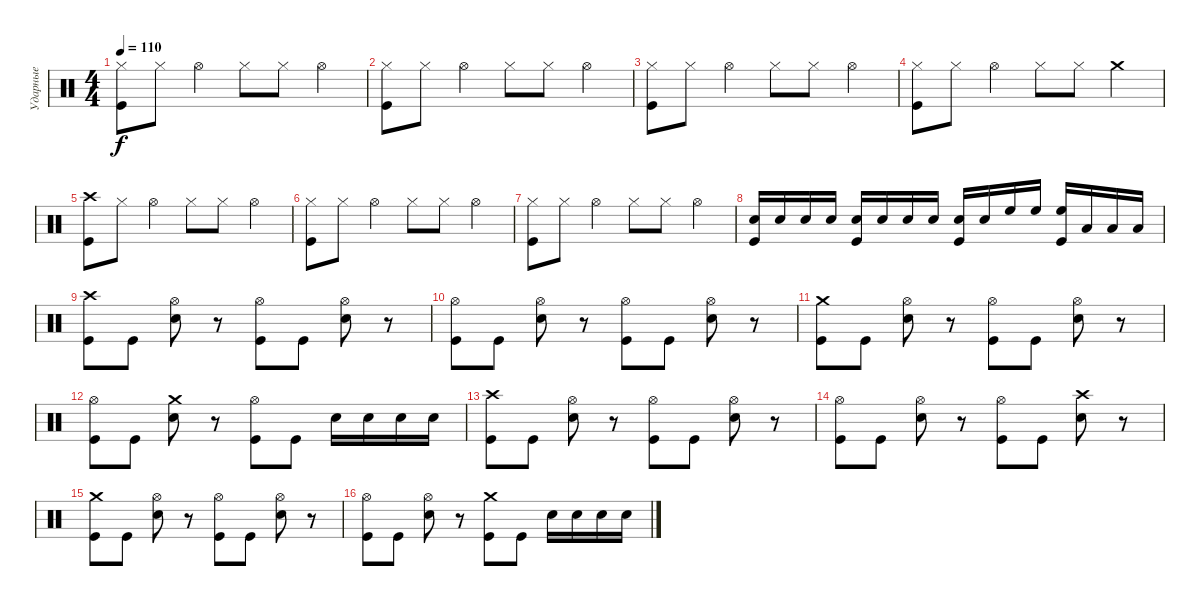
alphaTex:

\track ("Ударные" "Ударные") {solo instrument percussion}
\staff {score}
\articulation defaults
\ts (4 4)
\tempo 110
\clef neutral
\ks c
("Kick (hit)" "Hi-Hat (closed)").8{dy f} "Hi-Hat (closed)".8 "Hi-Hat (open)".4 "Hi-Hat (closed)".8 "Hi-Hat (closed)".8 "Hi-Hat (open)".4 |
("Kick (hit)" "Hi-Hat (closed)").8 "Hi-Hat (closed)".8 "Hi-Hat (open)".4 "Hi-Hat (closed)".8 "Hi-Hat (closed)".8 "Hi-Hat (open)".4 |
("Kick (hit)" "Hi-Hat (closed)").8 "Hi-Hat (closed)".8 "Hi-Hat (open)".4 "Hi-Hat (closed)".8 "Hi-Hat (closed)".8 "Hi-Hat (open)".4 |
("Kick (hit)" "Hi-Hat (closed)").8 "Hi-Hat (closed)".8 "Hi-Hat (open)".4 "Hi-Hat (closed)".8 "Hi-Hat (closed)".8 "Crash medium (hit)".4 |
("Kick (hit)" "Crash high (hit)").8 "Hi-Hat (closed)".8 "Hi-Hat (open)".4 "Hi-Hat (closed)".8 "Hi-Hat (closed)".8 "Hi-Hat (open)".4 |
("Kick (hit)" "Hi-Hat (closed)").8 "Hi-Hat (closed)".8 "Hi-Hat (open)".4 "Hi-Hat (closed)".8 "Hi-Hat (closed)".8 "Hi-Hat (open)".4 |
("Kick (hit)" "Hi-Hat (closed)").8 "Hi-Hat (closed)".8 "Hi-Hat (open)".4 "Hi-Hat (closed)".8 "Hi-Hat (closed)".8 "Hi-Hat (open)".4 |
("Snare (hit) 2" "Kick (hit)").16 "Snare (hit) 2".16 "Snare (hit) 2".16 "Snare (hit) 2".16 ("Snare (hit) 2" "Kick (hit)").16 "Snare (hit) 2".16 "Snare (hit) 2".16 "Snare (hit) 2".16 ("Snare (hit) 2" "Kick (hit)").16 "Snare (hit) 2".16 "High Floor Tom (hit)".16 "High Floor Tom (hit)".16 ("High Floor Tom (hit)" "Kick (hit)").16 "Low Tom (hit)".16 "Low Tom (hit)".16 "Low Tom (hit)".16 |
("Kick (hit)" "Crash high (hit)").8 "Kick (hit)".8 ("Snare (hit) 2" "Hi-Hat (open)").8 r.8 ("Kick (hit)" "Hi-Hat (open)").8 "Kick (hit)".8 ("Snare (hit) 2" "Hi-Hat (open)").8 r.8 |
("Kick (hit)" "Hi-Hat (open)").8 "Kick (hit)".8 ("Snare (hit) 2" "Hi-Hat (open)").8 r.8 ("Kick (hit)" "Hi-Hat (open)").8 "Kick (hit)".8 ("Snare (hit) 2" "Hi-Hat (open)").8 r.8 |
("Kick (hit)" "Crash medium (hit)").8 "Kick (hit)".8 ("Snare (hit) 2" "Hi-Hat (open)").8 r.8 ("Kick (hit)" "Hi-Hat (open)").8 "Kick (hit)".8 ("Snare (hit) 2" "Hi-Hat (open)").8 r.8 |
("Kick (hit)" "Hi-Hat (open)").8 "Kick (hit)".8 ("Snare (hit) 2" "Crash medium (hit)").8 r.8 ("Kick (hit)" "Hi-Hat (open)").8 "Kick (hit)".8 "Snare (hit) 2".16 "Snare (hit) 2".16 "Snare (hit) 2".16 "Snare (hit) 2".16 |
("Kick (hit)" "Crash high (hit)").8 "Kick (hit)".8 ("Snare (hit) 2" "Hi-Hat (open)").8 r.8 ("Kick (hit)" "Hi-Hat (open)").8 "Kick (hit)".8 ("Snare (hit) 2" "Hi-Hat (open)").8 r.8 |
("Kick (hit)" "Hi-Hat (open)").8 "Kick (hit)".8 ("Snare (hit) 2" "Hi-Hat (open)").8 r.8 ("Kick (hit)" "Hi-Hat (open)").8 "Kick (hit)".8 ("Snare (hit) 2" "Crash high (hit)").8 r.8 |
("Kick (hit)" "Crash medium (hit)").8 "Kick (hit)".8 ("Snare (hit) 2" "Hi-Hat (open)").8 r.8 ("Kick (hit)" "Hi-Hat (open)").8 "Kick (hit)".8 ("Snare (hit) 2" "Hi-Hat (open)").8 r.8 |
("Kick (hit)" "Hi-Hat (open)").8 "Kick (hit)".8 ("Snare (hit) 2" "Hi-Hat (open)").8 r.8 ("Kick (hit)" "Crash medium (hit)").8 "Kick (hit)".8 "Snare (hit) 2".16 "Snare (hit) 2".16 "Snare (hit) 2".16 "Snare (hit) 2".16
